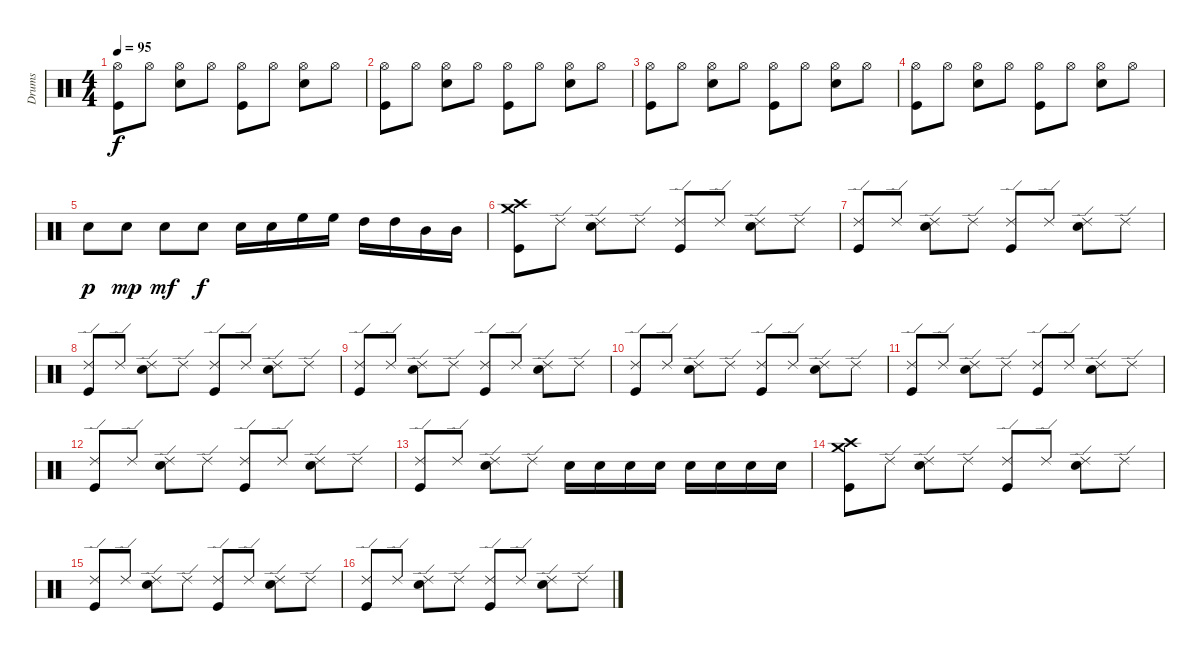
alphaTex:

\track ("Drums" "Drums") {instrument percussion}
\staff {score}
\articulation defaults
\ts (4 4)
\tempo 95
\clef neutral
\ks c
("Hi-Hat (open)" "Kick (hit)").8{dy f} "Hi-Hat (open)".8 ("Hi-Hat (open)" "Electric Snare (hit)").8 "Hi-Hat (open)".8 ("Hi-Hat (open)" "Kick (hit)").8 "Hi-Hat (open)".8 ("Hi-Hat (open)" "Electric Snare (hit)").8 "Hi-Hat (open)".8 |
("Hi-Hat (open)" "Kick (hit)").8 "Hi-Hat (open)".8 ("Hi-Hat (open)" "Electric Snare (hit)").8 "Hi-Hat (open)".8 ("Hi-Hat (open)" "Kick (hit)").8 "Hi-Hat (open)".8 ("Hi-Hat (open)" "Electric Snare (hit)").8 "Hi-Hat (open)".8 |
("Hi-Hat (open)" "Kick (hit)").8 "Hi-Hat (open)".8 ("Hi-Hat (open)" "Electric Snare (hit)").8 "Hi-Hat (open)".8 ("Hi-Hat (open)" "Kick (hit)").8 "Hi-Hat (open)".8 ("Hi-Hat (open)" "Electric Snare (hit)").8 "Hi-Hat (open)".8 |
("Hi-Hat (open)" "Kick (hit)").8 "Hi-Hat (open)".8 ("Hi-Hat (open)" "Electric Snare (hit)").8 "Hi-Hat (open)".8 ("Hi-Hat (open)" "Kick (hit)").8 "Hi-Hat (open)".8 ("Hi-Hat (open)" "Electric Snare (hit)").8 "Hi-Hat (open)".8 |
"Electric Snare (hit)".8{dy p} "Electric Snare (hit)".8{dy mp} "Electric Snare (hit)".8{dy mf} "Electric Snare (hit)".8{dy f} "Electric Snare (hit)".16 "Electric Snare (hit)".16 "High Floor Tom (hit)".16 "High Floor Tom (hit)".16 "High Tom (hit)".16 "High Tom (hit)".16 "Mid Tom (hit)".16 "Mid Tom (hit)".16 |
("Crash medium (hit)" "Crash high (hit)" "Kick (hit)").8 "Ride (edge) 2".8 ("Ride (edge) 2" "Electric Snare (hit)").8 "Ride (edge) 2".8 ("Ride (edge) 2" "Kick (hit)").8 "Ride (edge) 2".8 ("Ride (edge) 2" "Electric Snare (hit)").8 "Ride (edge) 2".8 |
("Ride (edge) 2" "Kick (hit)").8 "Ride (edge) 2".8 ("Ride (edge) 2" "Electric Snare (hit)").8 "Ride (edge) 2".8 ("Ride (edge) 2" "Kick (hit)").8 "Ride (edge) 2".8 ("Ride (edge) 2" "Electric Snare (hit)").8 "Ride (edge) 2".8 |
("Ride (edge) 2" "Kick (hit)").8 "Ride (edge) 2".8 ("Ride (edge) 2" "Electric Snare (hit)").8 "Ride (edge) 2".8 ("Ride (edge) 2" "Kick (hit)").8 "Ride (edge) 2".8 ("Ride (edge) 2" "Electric Snare (hit)").8 "Ride (edge) 2".8 |
("Ride (edge) 2" "Kick (hit)").8 "Ride (edge) 2".8 ("Ride (edge) 2" "Electric Snare (hit)").8 "Ride (edge) 2".8 ("Ride (edge) 2" "Kick (hit)").8 "Ride (edge) 2".8 ("Ride (edge) 2" "Electric Snare (hit)").8 "Ride (edge) 2".8 |
("Ride (edge) 2" "Kick (hit)").8 "Ride (edge) 2".8 ("Ride (edge) 2" "Electric Snare (hit)").8 "Ride (edge) 2".8 ("Ride (edge) 2" "Kick (hit)").8 "Ride (edge) 2".8 ("Ride (edge) 2" "Electric Snare (hit)").8 "Ride (edge) 2".8 |
("Ride (edge) 2" "Kick (hit)").8 "Ride (edge) 2".8 ("Ride (edge) 2" "Electric Snare (hit)").8 "Ride (edge) 2".8 ("Ride (edge) 2" "Kick (hit)").8 "Ride (edge) 2".8 ("Ride (edge) 2" "Electric Snare (hit)").8 "Ride (edge) 2".8 |
("Ride (edge) 2" "Kick (hit)").8 "Ride (edge) 2".8 ("Ride (edge) 2" "Electric Snare (hit)").8 "Ride (edge) 2".8 ("Ride (edge) 2" "Kick (hit)").8 "Ride (edge) 2".8 ("Ride (edge) 2" "Electric Snare (hit)").8 "Ride (edge) 2".8 |
("Ride (edge) 2" "Kick (hit)").8 "Ride (edge) 2".8 ("Ride (edge) 2" "Electric Snare (hit)").8 "Ride (edge) 2".8 "Snare (hit) 2".16 "Snare (hit) 2".16 "Snare (hit) 2".16 "Snare (hit) 2".16 "Snare (hit) 2".16 "Snare (hit) 2".16 "Snare (hit) 2".16 "Snare (hit) 2".16 |
("Crash medium (hit)" "Crash high (hit)" "Kick (hit)").8 "Ride (edge) 2".8 ("Ride (edge) 2" "Electric Snare (hit)").8 "Ride (edge) 2".8 ("Ride (edge) 2" "Kick (hit)").8 "Ride (edge) 2".8 ("Ride (edge) 2" "Electric Snare (hit)").8 "Ride (edge) 2".8 |
("Ride (edge) 2" "Kick (hit)").8 "Ride (edge) 2".8 ("Ride (edge) 2" "Electric Snare (hit)").8 "Ride (edge) 2".8 ("Ride (edge) 2" "Kick (hit)").8 "Ride (edge) 2".8 ("Ride (edge) 2" "Electric Snare (hit)").8 "Ride (edge) 2".8 |
("Ride (edge) 2" "Kick (hit)").8 "Ride (edge) 2".8 ("Ride (edge) 2" "Electric Snare (hit)").8 "Ride (edge) 2".8 ("Ride (edge) 2" "Kick (hit)").8 "Ride (edge) 2".8 ("Ride (edge) 2" "Electric Snare (hit)").8 "Ride (edge) 2".8
